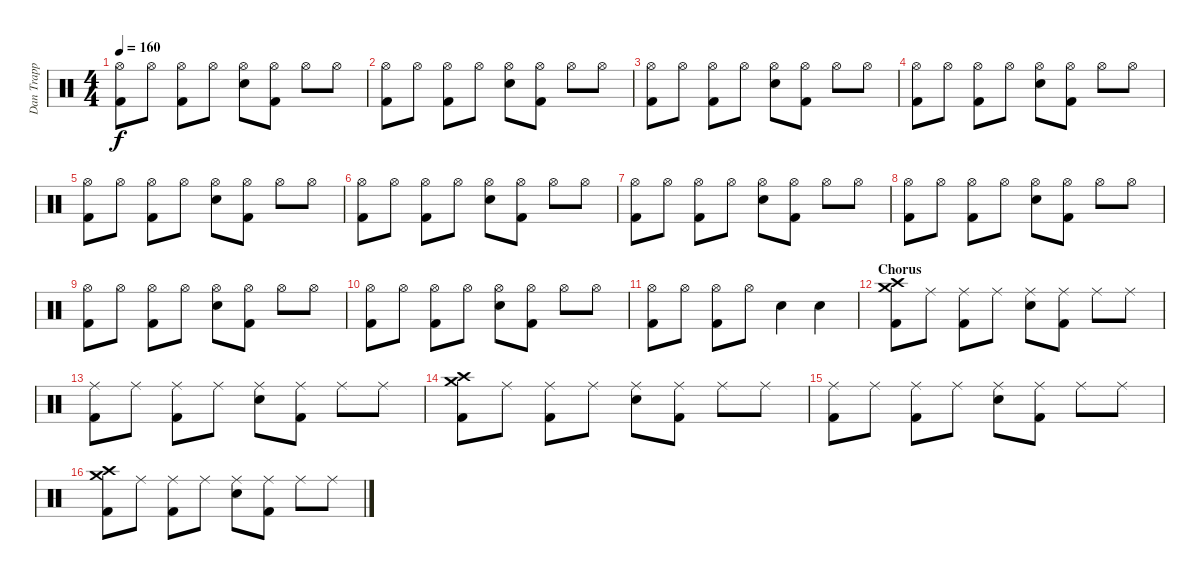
\track ("Dan Trapp" "Dan Trapp") {instrument percussion}
\staff {score}
\articulation defaults
\ts (4 4)
\tempo 160
\clef neutral
\ks c
("Hi-Hat (open)" "Kick (hit) 2").8{dy f} "Hi-Hat (open)".8 ("Hi-Hat (open)" "Kick (hit) 2").8 "Hi-Hat (open)".8 ("Hi-Hat (open)" "Snare (hit) 2").8 ("Hi-Hat (open)" "Kick (hit) 2").8 "Hi-Hat (open)".8 "Hi-Hat (open)".8 |
("Hi-Hat (open)" "Kick (hit) 2").8 "Hi-Hat (open)".8 ("Hi-Hat (open)" "Kick (hit) 2").8 "Hi-Hat (open)".8 ("Hi-Hat (open)" "Snare (hit) 2").8 ("Hi-Hat (open)" "Kick (hit) 2").8 "Hi-Hat (open)".8 "Hi-Hat (open)".8 |
("Hi-Hat (open)" "Kick (hit) 2").8 "Hi-Hat (open)".8 ("Hi-Hat (open)" "Kick (hit) 2").8 "Hi-Hat (open)".8 ("Hi-Hat (open)" "Snare (hit) 2").8 ("Hi-Hat (open)" "Kick (hit) 2").8 "Hi-Hat (open)".8 "Hi-Hat (open)".8 |
("Hi-Hat (open)" "Kick (hit) 2").8 "Hi-Hat (open)".8 ("Hi-Hat (open)" "Kick (hit) 2").8 "Hi-Hat (open)".8 ("Hi-Hat (open)" "Snare (hit) 2").8 ("Hi-Hat (open)" "Kick (hit) 2").8 "Hi-Hat (open)".8 "Hi-Hat (open)".8 |
("Hi-Hat (open)" "Kick (hit) 2").8 "Hi-Hat (open)".8 ("Hi-Hat (open)" "Kick (hit) 2").8 "Hi-Hat (open)".8 ("Hi-Hat (open)" "Snare (hit) 2").8 ("Hi-Hat (open)" "Kick (hit) 2").8 "Hi-Hat (open)".8 "Hi-Hat (open)".8 |
("Hi-Hat (open)" "Kick (hit) 2").8 "Hi-Hat (open)".8 ("Hi-Hat (open)" "Kick (hit) 2").8 "Hi-Hat (open)".8 ("Hi-Hat (open)" "Snare (hit) 2").8 ("Hi-Hat (open)" "Kick (hit) 2").8 "Hi-Hat (open)".8 "Hi-Hat (open)".8 |
("Hi-Hat (open)" "Kick (hit) 2").8 "Hi-Hat (open)".8 ("Hi-Hat (open)" "Kick (hit) 2").8 "Hi-Hat (open)".8 ("Hi-Hat (open)" "Snare (hit) 2").8 ("Hi-Hat (open)" "Kick (hit) 2").8 "Hi-Hat (open)".8 "Hi-Hat (open)".8 |
("Hi-Hat (open)" "Kick (hit) 2").8 "Hi-Hat (open)".8 ("Hi-Hat (open)" "Kick (hit) 2").8 "Hi-Hat (open)".8 ("Hi-Hat (open)" "Snare (hit) 2").8 ("Hi-Hat (open)" "Kick (hit) 2").8 "Hi-Hat (open)".8 "Hi-Hat (open)".8 |
("Hi-Hat (open)" "Kick (hit) 2").8 "Hi-Hat (open)".8 ("Hi-Hat (open)" "Kick (hit) 2").8 "Hi-Hat (open)".8 ("Hi-Hat (open)" "Snare (hit) 2").8 ("Hi-Hat (open)" "Kick (hit) 2").8 "Hi-Hat (open)".8 "Hi-Hat (open)".8 |
("Hi-Hat (open)" "Kick (hit) 2").8 "Hi-Hat (open)".8 ("Hi-Hat (open)" "Kick (hit) 2").8 "Hi-Hat (open)".8 ("Hi-Hat (open)" "Snare (hit) 2").8 ("Hi-Hat (open)" "Kick (hit) 2").8 "Hi-Hat (open)".8 "Hi-Hat (open)".8 |
("Hi-Hat (open)" "Kick (hit) 2").8 "Hi-Hat (open)".8 ("Hi-Hat (open)" "Kick (hit) 2").8 "Hi-Hat (open)".8 "Snare (hit) 2".4 "Snare (hit) 2".4 |
\section ("" "Chorus")
("Crash medium (hit)" "Crash high (hit)" "Kick (hit) 2").8 "Ride (middle)".8 ("Ride (middle)" "Kick (hit) 2").8 "Ride (middle)".8 ("Ride (middle)" "Snare (hit) 2").8 ("Ride (middle)" "Kick (hit) 2").8 "Ride (middle)".8 "Ride (middle)".8 |
("Ride (middle)" "Kick (hit) 2").8 "Ride (middle)".8 ("Ride (middle)" "Kick (hit) 2").8 "Ride (middle)".8 ("Ride (middle)" "Snare (hit) 2").8 ("Ride (middle)" "Kick (hit) 2").8 "Ride (middle)".8 "Ride (middle)".8 |
("Crash medium (hit)" "Crash high (hit)" "Kick (hit) 2").8 "Ride (middle)".8 ("Ride (middle)" "Kick (hit) 2").8 "Ride (middle)".8 ("Ride (middle)" "Snare (hit) 2").8 ("Ride (middle)" "Kick (hit) 2").8 "Ride (middle)".8 "Ride (middle)".8 |
("Ride (middle)" "Kick (hit) 2").8 "Ride (middle)".8 ("Ride (middle)" "Kick (hit) 2").8 "Ride (middle)".8 ("Ride (middle)" "Snare (hit) 2").8 ("Ride (middle)" "Kick (hit) 2").8 "Ride (middle)".8 "Ride (middle)".8 |
("Crash medium (hit)" "Crash high (hit)" "Kick (hit) 2").8 "Ride (middle)".8 ("Ride (middle)" "Kick (hit) 2").8 "Ride (middle)".8 ("Ride (middle)" "Snare (hit) 2").8 ("Ride (middle)" "Kick (hit) 2").8 "Ride (middle)".8 "Ride (middle)".8
